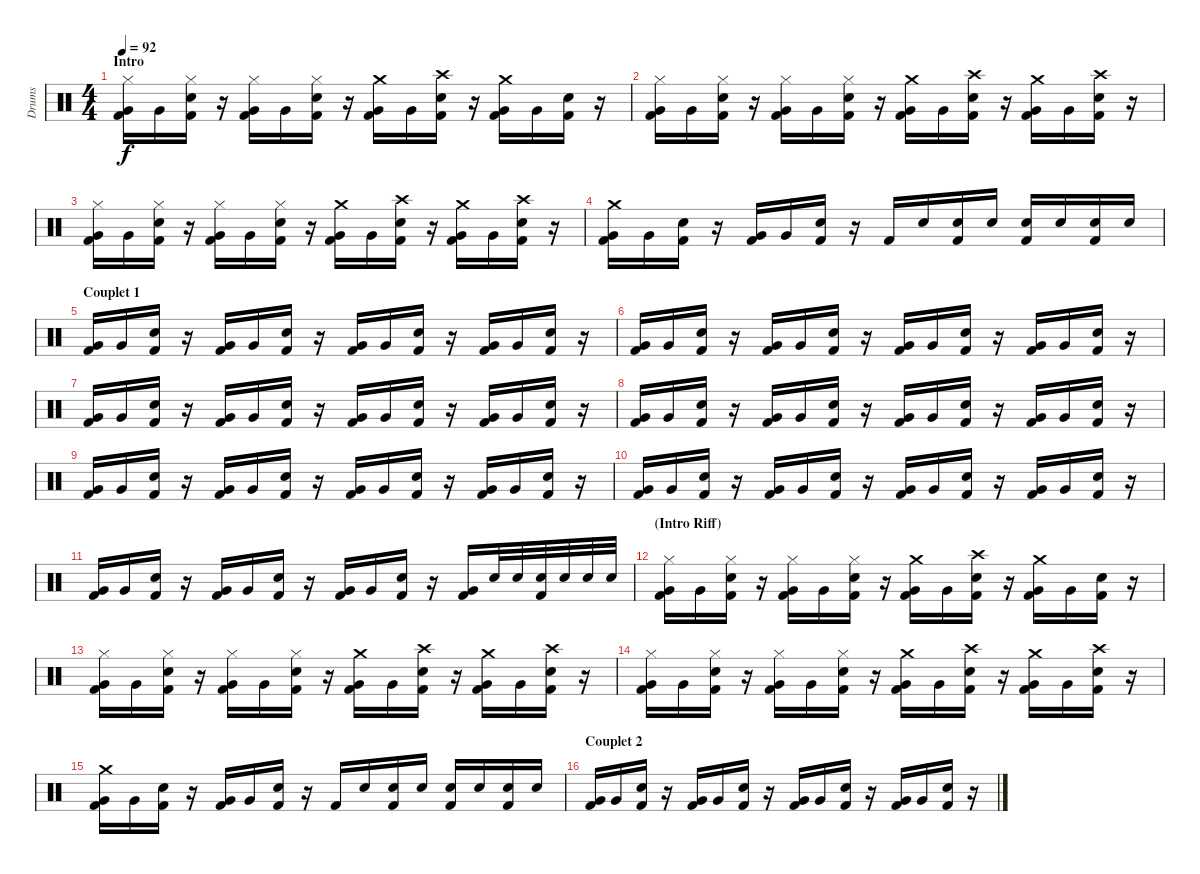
\track ("Drums" "Drums") {instrument percussion}
\staff {score}
\articulation defaults
\ts (4 4)
\section ("" "Intro")
\tempo 92
\clef neutral
\ks c
("Hi-Hat (closed)" "Very Low Tom (hit)" "Kick (hit) 2").16{dy f} "Very Low Tom (hit)".16 ("Hi-Hat (closed)" "Electric Snare (hit)" "Kick (hit) 2").16 r.16 ("Hi-Hat (closed)" "Very Low Tom (hit)" "Kick (hit) 2").16 "Very Low Tom (hit)".16 ("Hi-Hat (closed)" "Electric Snare (hit)" "Kick (hit) 2").16 r.16 ("Crash medium (hit)" "Very Low Tom (hit)" "Kick (hit) 2").16 "Very Low Tom (hit)".16 ("Crash high (hit)" "Electric Snare (hit)" "Kick (hit) 2").16 r.16 ("Crash medium (hit)" "Very Low Tom (hit)" "Kick (hit) 2").16 "Very Low Tom (hit)".16 ("Electric Snare (hit)" "Kick (hit) 2").16 r.16 |
("Hi-Hat (closed)" "Very Low Tom (hit)" "Kick (hit) 2").16 "Very Low Tom (hit)".16 ("Hi-Hat (closed)" "Electric Snare (hit)" "Kick (hit) 2").16 r.16 ("Hi-Hat (closed)" "Very Low Tom (hit)" "Kick (hit) 2").16 "Very Low Tom (hit)".16 ("Hi-Hat (closed)" "Electric Snare (hit)" "Kick (hit) 2").16 r.16 ("Crash medium (hit)" "Very Low Tom (hit)" "Kick (hit) 2").16 "Very Low Tom (hit)".16 ("Crash high (hit)" "Electric Snare (hit)" "Kick (hit) 2").16 r.16 ("Crash medium (hit)" "Very Low Tom (hit)" "Kick (hit) 2").16 "Very Low Tom (hit)".16 ("Crash high (hit)" "Electric Snare (hit)" "Kick (hit) 2").16 r.16 |
("Hi-Hat (closed)" "Very Low Tom (hit)" "Kick (hit) 2").16 "Very Low Tom (hit)".16 ("Hi-Hat (closed)" "Electric Snare (hit)" "Kick (hit) 2").16 r.16 ("Hi-Hat (closed)" "Very Low Tom (hit)" "Kick (hit) 2").16 "Very Low Tom (hit)".16 ("Hi-Hat (closed)" "Electric Snare (hit)" "Kick (hit) 2").16 r.16 ("Crash medium (hit)" "Very Low Tom (hit)" "Kick (hit) 2").16 "Very Low Tom (hit)".16 ("Crash high (hit)" "Electric Snare (hit)" "Kick (hit) 2").16 r.16 ("Crash medium (hit)" "Very Low Tom (hit)" "Kick (hit) 2").16 "Very Low Tom (hit)".16 ("Crash high (hit)" "Electric Snare (hit)" "Kick (hit) 2").16 r.16 |
("Crash medium (hit)" "Very Low Tom (hit)" "Kick (hit) 2").16 "Very Low Tom (hit)".16 ("Electric Snare (hit)" "Kick (hit) 2").16 r.16 ("Very Low Tom (hit)" "Kick (hit) 2").16 "Very Low Tom (hit)".16 ("Electric Snare (hit)" "Kick (hit) 2").16 r.16 "Kick (hit) 2".16 "Electric Snare (hit)".16 ("Electric Snare (hit)" "Kick (hit) 2").16 "Electric Snare (hit)".16 ("Electric Snare (hit)" "Kick (hit) 2").16 "Electric Snare (hit)".16 ("Electric Snare (hit)" "Kick (hit) 2").16 "Electric Snare (hit)".16 |
\section ("" "Couplet 1")
("Very Low Tom (hit)" "Kick (hit) 2").16 "Very Low Tom (hit)".16 ("Electric Snare (hit)" "Kick (hit) 2").16 r.16 ("Very Low Tom (hit)" "Kick (hit) 2").16 "Very Low Tom (hit)".16 ("Electric Snare (hit)" "Kick (hit) 2").16 r.16 ("Very Low Tom (hit)" "Kick (hit) 2").16 "Very Low Tom (hit)".16 ("Electric Snare (hit)" "Kick (hit) 2").16 r.16 ("Very Low Tom (hit)" "Kick (hit) 2").16 "Very Low Tom (hit)".16 ("Electric Snare (hit)" "Kick (hit) 2").16 r.16 |
("Very Low Tom (hit)" "Kick (hit) 2").16 "Very Low Tom (hit)".16 ("Electric Snare (hit)" "Kick (hit) 2").16 r.16 ("Very Low Tom (hit)" "Kick (hit) 2").16 "Very Low Tom (hit)".16 ("Electric Snare (hit)" "Kick (hit) 2").16 r.16 ("Very Low Tom (hit)" "Kick (hit) 2").16 "Very Low Tom (hit)".16 ("Electric Snare (hit)" "Kick (hit) 2").16 r.16 ("Very Low Tom (hit)" "Kick (hit) 2").16 "Very Low Tom (hit)".16 ("Electric Snare (hit)" "Kick (hit) 2").16 r.16 |
("Very Low Tom (hit)" "Kick (hit) 2").16 "Very Low Tom (hit)".16 ("Electric Snare (hit)" "Kick (hit) 2").16 r.16 ("Very Low Tom (hit)" "Kick (hit) 2").16 "Very Low Tom (hit)".16 ("Electric Snare (hit)" "Kick (hit) 2").16 r.16 ("Very Low Tom (hit)" "Kick (hit) 2").16 "Very Low Tom (hit)".16 ("Electric Snare (hit)" "Kick (hit) 2").16 r.16 ("Very Low Tom (hit)" "Kick (hit) 2").16 "Very Low Tom (hit)".16 ("Electric Snare (hit)" "Kick (hit) 2").16 r.16 |
("Very Low Tom (hit)" "Kick (hit) 2").16 "Very Low Tom (hit)".16 ("Electric Snare (hit)" "Kick (hit) 2").16 r.16 ("Very Low Tom (hit)" "Kick (hit) 2").16 "Very Low Tom (hit)".16 ("Electric Snare (hit)" "Kick (hit) 2").16 r.16 ("Very Low Tom (hit)" "Kick (hit) 2").16 "Very Low Tom (hit)".16 ("Electric Snare (hit)" "Kick (hit) 2").16 r.16 ("Very Low Tom (hit)" "Kick (hit) 2").16 "Very Low Tom (hit)".16 ("Electric Snare (hit)" "Kick (hit) 2").16 r.16 |
("Very Low Tom (hit)" "Kick (hit) 2").16 "Very Low Tom (hit)".16 ("Electric Snare (hit)" "Kick (hit) 2").16 r.16 ("Very Low Tom (hit)" "Kick (hit) 2").16 "Very Low Tom (hit)".16 ("Electric Snare (hit)" "Kick (hit) 2").16 r.16 ("Very Low Tom (hit)" "Kick (hit) 2").16 "Very Low Tom (hit)".16 ("Electric Snare (hit)" "Kick (hit) 2").16 r.16 ("Very Low Tom (hit)" "Kick (hit) 2").16 "Very Low Tom (hit)".16 ("Electric Snare (hit)" "Kick (hit) 2").16 r.16 |
("Very Low Tom (hit)" "Kick (hit) 2").16 "Very Low Tom (hit)".16 ("Electric Snare (hit)" "Kick (hit) 2").16 r.16 ("Very Low Tom (hit)" "Kick (hit) 2").16 "Very Low Tom (hit)".16 ("Electric Snare (hit)" "Kick (hit) 2").16 r.16 ("Very Low Tom (hit)" "Kick (hit) 2").16 "Very Low Tom (hit)".16 ("Electric Snare (hit)" "Kick (hit) 2").16 r.16 ("Very Low Tom (hit)" "Kick (hit) 2").16 "Very Low Tom (hit)".16 ("Electric Snare (hit)" "Kick (hit) 2").16 r.16 |
("Very Low Tom (hit)" "Kick (hit) 2").16 "Very Low Tom (hit)".16 ("Electric Snare (hit)" "Kick (hit) 2").16 r.16 ("Very Low Tom (hit)" "Kick (hit) 2").16 "Very Low Tom (hit)".16 ("Electric Snare (hit)" "Kick (hit) 2").16 r.16 ("Very Low Tom (hit)" "Kick (hit) 2").16 "Very Low Tom (hit)".16 ("Electric Snare (hit)" "Kick (hit) 2").16 r.16 ("Very Low Tom (hit)" "Kick (hit) 2").16 "Electric Snare (hit)".32 "Electric Snare (hit)".32 ("Electric Snare (hit)" "Kick (hit) 2").32 "Electric Snare (hit)".32 "Electric Snare (hit)".32 "Electric Snare (hit)".32 |
\section ("" "(Intro Riff)")
("Hi-Hat (closed)" "Very Low Tom (hit)" "Kick (hit) 2").16 "Very Low Tom (hit)".16 ("Hi-Hat (closed)" "Electric Snare (hit)" "Kick (hit) 2").16 r.16 ("Hi-Hat (closed)" "Very Low Tom (hit)" "Kick (hit) 2").16 "Very Low Tom (hit)".16 ("Hi-Hat (closed)" "Electric Snare (hit)" "Kick (hit) 2").16 r.16 ("Crash medium (hit)" "Very Low Tom (hit)" "Kick (hit) 2").16 "Very Low Tom (hit)".16 ("Crash high (hit)" "Electric Snare (hit)" "Kick (hit) 2").16 r.16 ("Crash medium (hit)" "Very Low Tom (hit)" "Kick (hit) 2").16 "Very Low Tom (hit)".16 ("Electric Snare (hit)" "Kick (hit) 2").16 r.16 |
("Hi-Hat (closed)" "Very Low Tom (hit)" "Kick (hit) 2").16 "Very Low Tom (hit)".16 ("Hi-Hat (closed)" "Electric Snare (hit)" "Kick (hit) 2").16 r.16 ("Hi-Hat (closed)" "Very Low Tom (hit)" "Kick (hit) 2").16 "Very Low Tom (hit)".16 ("Hi-Hat (closed)" "Electric Snare (hit)" "Kick (hit) 2").16 r.16 ("Crash medium (hit)" "Very Low Tom (hit)" "Kick (hit) 2").16 "Very Low Tom (hit)".16 ("Crash high (hit)" "Electric Snare (hit)" "Kick (hit) 2").16 r.16 ("Crash medium (hit)" "Very Low Tom (hit)" "Kick (hit) 2").16 "Very Low Tom (hit)".16 ("Crash high (hit)" "Electric Snare (hit)" "Kick (hit) 2").16 r.16 |
("Hi-Hat (closed)" "Very Low Tom (hit)" "Kick (hit) 2").16 "Very Low Tom (hit)".16 ("Hi-Hat (closed)" "Electric Snare (hit)" "Kick (hit) 2").16 r.16 ("Hi-Hat (closed)" "Very Low Tom (hit)" "Kick (hit) 2").16 "Very Low Tom (hit)".16 ("Hi-Hat (closed)" "Electric Snare (hit)" "Kick (hit) 2").16 r.16 ("Crash medium (hit)" "Very Low Tom (hit)" "Kick (hit) 2").16 "Very Low Tom (hit)".16 ("Crash high (hit)" "Electric Snare (hit)" "Kick (hit) 2").16 r.16 ("Crash medium (hit)" "Very Low Tom (hit)" "Kick (hit) 2").16 "Very Low Tom (hit)".16 ("Crash high (hit)" "Electric Snare (hit)" "Kick (hit) 2").16 r.16 |
("Crash medium (hit)" "Very Low Tom (hit)" "Kick (hit) 2").16 "Very Low Tom (hit)".16 ("Electric Snare (hit)" "Kick (hit) 2").16 r.16 ("Very Low Tom (hit)" "Kick (hit) 2").16 "Very Low Tom (hit)".16 ("Electric Snare (hit)" "Kick (hit) 2").16 r.16 "Kick (hit) 2".16 "Electric Snare (hit)".16 ("Electric Snare (hit)" "Kick (hit) 2").16 "Electric Snare (hit)".16 ("Electric Snare (hit)" "Kick (hit) 2").16 "Electric Snare (hit)".16 ("Electric Snare (hit)" "Kick (hit) 2").16 "Electric Snare (hit)".16 |
\section ("" "Couplet 2")
("Very Low Tom (hit)" "Kick (hit) 2").16 "Very Low Tom (hit)".16 ("Electric Snare (hit)" "Kick (hit) 2").16 r.16 ("Very Low Tom (hit)" "Kick (hit) 2").16 "Very Low Tom (hit)".16 ("Electric Snare (hit)" "Kick (hit) 2").16 r.16 ("Very Low Tom (hit)" "Kick (hit) 2").16 "Very Low Tom (hit)".16 ("Electric Snare (hit)" "Kick (hit) 2").16 r.16 ("Very Low Tom (hit)" "Kick (hit) 2").16 "Very Low Tom (hit)".16 ("Electric Snare (hit)" "Kick (hit) 2").16 r.16
